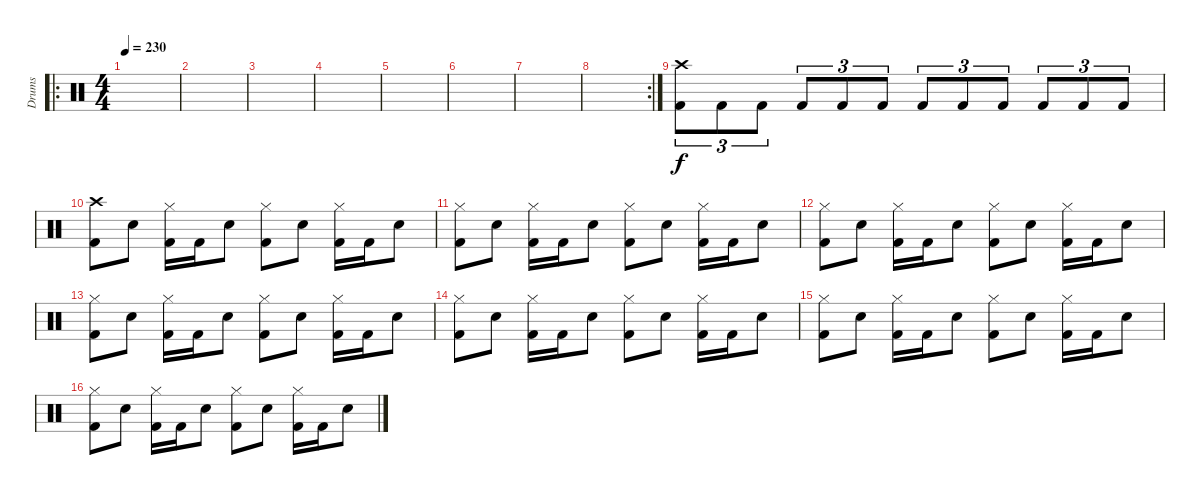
\track ("Drums" "Drums") {instrument percussion}
\staff {score}
\articulation defaults
\ro
\ts (4 4)
\tempo 230
\clef neutral
\ks c
|
|
|
|
|
|
|
\rc 2
|
("Crash high (hit)" "Kick (hit) 2").8{tu (3 2)} "Kick (hit) 2".8{tu (3 2)} "Kick (hit) 2".8{tu (3 2)} "Kick (hit) 2".8{tu (3 2)} "Kick (hit) 2".8{tu (3 2)} "Kick (hit) 2".8{tu (3 2)} "Kick (hit) 2".8{tu (3 2)} "Kick (hit) 2".8{tu (3 2)} "Kick (hit) 2".8{tu (3 2)} "Kick (hit) 2".8{tu (3 2)} "Kick (hit) 2".8{tu (3 2)} "Kick (hit) 2".8{tu (3 2)} |
("Crash high (hit)" "Kick (hit) 2").8 "Electric Snare (hit)".8 ("Hi-Hat (closed)" "Kick (hit) 2").16 "Kick (hit) 2".16 "Electric Snare (hit)".8 ("Hi-Hat (closed)" "Kick (hit) 2").8 "Electric Snare (hit)".8 ("Hi-Hat (closed)" "Kick (hit) 2").16 "Kick (hit) 2".16 "Electric Snare (hit)".8 |
("Hi-Hat (closed)" "Kick (hit) 2").8 "Electric Snare (hit)".8 ("Hi-Hat (closed)" "Kick (hit) 2").16 "Kick (hit) 2".16 "Electric Snare (hit)".8 ("Hi-Hat (closed)" "Kick (hit) 2").8 "Electric Snare (hit)".8 ("Hi-Hat (closed)" "Kick (hit) 2").16 "Kick (hit) 2".16 "Electric Snare (hit)".8 |
("Hi-Hat (closed)" "Kick (hit) 2").8 "Electric Snare (hit)".8 ("Hi-Hat (closed)" "Kick (hit) 2").16 "Kick (hit) 2".16 "Electric Snare (hit)".8 ("Hi-Hat (closed)" "Kick (hit) 2").8 "Electric Snare (hit)".8 ("Hi-Hat (closed)" "Kick (hit) 2").16 "Kick (hit) 2".16 "Electric Snare (hit)".8 |
("Hi-Hat (closed)" "Kick (hit) 2").8 "Electric Snare (hit)".8 ("Hi-Hat (closed)" "Kick (hit) 2").16 "Kick (hit) 2".16 "Electric Snare (hit)".8 ("Hi-Hat (closed)" "Kick (hit) 2").8 "Electric Snare (hit)".8 ("Hi-Hat (closed)" "Kick (hit) 2").16 "Kick (hit) 2".16 "Electric Snare (hit)".8 |
("Hi-Hat (closed)" "Kick (hit) 2").8 "Electric Snare (hit)".8 ("Hi-Hat (closed)" "Kick (hit) 2").16 "Kick (hit) 2".16 "Electric Snare (hit)".8 ("Hi-Hat (closed)" "Kick (hit) 2").8 "Electric Snare (hit)".8 ("Hi-Hat (closed)" "Kick (hit) 2").16 "Kick (hit) 2".16 "Electric Snare (hit)".8 |
("Hi-Hat (closed)" "Kick (hit) 2").8 "Electric Snare (hit)".8 ("Hi-Hat (closed)" "Kick (hit) 2").16 "Kick (hit) 2".16 "Electric Snare (hit)".8 ("Hi-Hat (closed)" "Kick (hit) 2").8 "Electric Snare (hit)".8 ("Hi-Hat (closed)" "Kick (hit) 2").16 "Kick (hit) 2".16 "Electric Snare (hit)".8 |
("Hi-Hat (closed)" "Kick (hit) 2").8 "Electric Snare (hit)".8 ("Hi-Hat (closed)" "Kick (hit) 2").16 "Kick (hit) 2".16 "Electric Snare (hit)".8 ("Hi-Hat (closed)" "Kick (hit) 2").8 "Electric Snare (hit)".8 ("Hi-Hat (closed)" "Kick (hit) 2").16 "Kick (hit) 2".16 "Electric Snare (hit)".8
